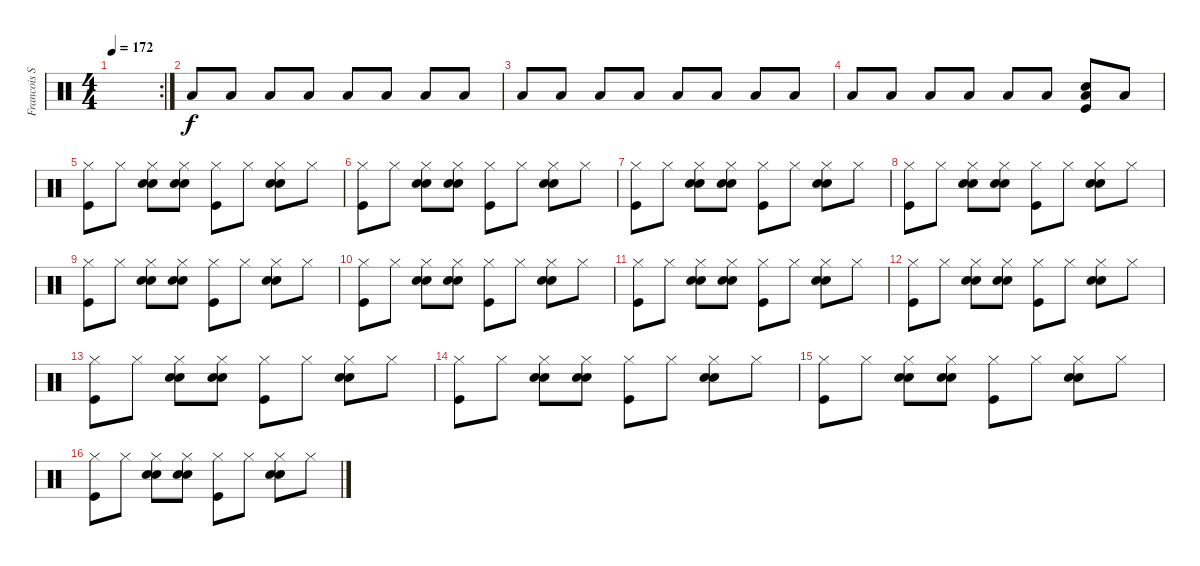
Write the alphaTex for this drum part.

\track ("Francois Soulier" "Francois S") {instrument percussion}
\staff {score}
\articulation defaults
\rc 2
\ts (4 4)
\tempo 172
\clef neutral
\ks c
|
"Low Floor Tom (hit)".8 "Low Floor Tom (hit)".8 "Low Floor Tom (hit)".8 "Low Floor Tom (hit)".8 "Low Floor Tom (hit)".8 "Low Floor Tom (hit)".8 "Low Floor Tom (hit)".8 "Low Floor Tom (hit)".8 |
"Low Floor Tom (hit)".8 "Low Floor Tom (hit)".8 "Low Floor Tom (hit)".8 "Low Floor Tom (hit)".8 "Low Floor Tom (hit)".8 "Low Floor Tom (hit)".8 "Low Floor Tom (hit)".8 "Low Floor Tom (hit)".8 |
"Low Floor Tom (hit)".8 "Low Floor Tom (hit)".8 "Low Floor Tom (hit)".8 "Low Floor Tom (hit)".8 "Low Floor Tom (hit)".8 "Low Floor Tom (hit)".8 ("Electric Snare (hit)" "Low Floor Tom (hit)" "Kick (hit)").8 "Low Floor Tom (hit)".8 |
("Hi-Hat (closed)" "Kick (hit)").8 "Hi-Hat (closed)".8 ("Electric Snare (hit)" "Hi-Hat (closed)" "Snare (hit) 2").8 ("Electric Snare (hit)" "Hi-Hat (closed)" "Snare (hit) 2").8 ("Hi-Hat (closed)" "Kick (hit)").8 "Hi-Hat (closed)".8 ("Electric Snare (hit)" "Hi-Hat (closed)" "Snare (hit) 2").8 "Hi-Hat (closed)".8 |
("Hi-Hat (closed)" "Kick (hit)").8 "Hi-Hat (closed)".8 ("Electric Snare (hit)" "Hi-Hat (closed)" "Snare (hit) 2").8 ("Electric Snare (hit)" "Hi-Hat (closed)" "Snare (hit) 2").8 ("Hi-Hat (closed)" "Kick (hit)").8 "Hi-Hat (closed)".8 ("Electric Snare (hit)" "Hi-Hat (closed)" "Snare (hit) 2").8 "Hi-Hat (closed)".8 |
("Hi-Hat (closed)" "Kick (hit)").8 "Hi-Hat (closed)".8 ("Electric Snare (hit)" "Hi-Hat (closed)" "Snare (hit) 2").8 ("Electric Snare (hit)" "Hi-Hat (closed)" "Snare (hit) 2").8 ("Hi-Hat (closed)" "Kick (hit)").8 "Hi-Hat (closed)".8 ("Electric Snare (hit)" "Hi-Hat (closed)" "Snare (hit) 2").8 "Hi-Hat (closed)".8 |
("Hi-Hat (closed)" "Kick (hit)").8 "Hi-Hat (closed)".8 ("Electric Snare (hit)" "Hi-Hat (closed)" "Snare (hit) 2").8 ("Electric Snare (hit)" "Hi-Hat (closed)" "Snare (hit) 2").8 ("Hi-Hat (closed)" "Kick (hit)").8 "Hi-Hat (closed)".8 ("Electric Snare (hit)" "Hi-Hat (closed)" "Snare (hit) 2").8 "Hi-Hat (closed)".8 |
("Hi-Hat (closed)" "Kick (hit)").8 "Hi-Hat (closed)".8 ("Electric Snare (hit)" "Hi-Hat (closed)" "Snare (hit) 2").8 ("Electric Snare (hit)" "Hi-Hat (closed)" "Snare (hit) 2").8 ("Hi-Hat (closed)" "Kick (hit)").8 "Hi-Hat (closed)".8 ("Electric Snare (hit)" "Hi-Hat (closed)" "Snare (hit) 2").8 "Hi-Hat (closed)".8 |
("Hi-Hat (closed)" "Kick (hit)").8 "Hi-Hat (closed)".8 ("Electric Snare (hit)" "Hi-Hat (closed)" "Snare (hit) 2").8 ("Electric Snare (hit)" "Hi-Hat (closed)" "Snare (hit) 2").8 ("Hi-Hat (closed)" "Kick (hit)").8 "Hi-Hat (closed)".8 ("Electric Snare (hit)" "Hi-Hat (closed)" "Snare (hit) 2").8 "Hi-Hat (closed)".8 |
("Hi-Hat (closed)" "Kick (hit)").8 "Hi-Hat (closed)".8 ("Electric Snare (hit)" "Hi-Hat (closed)" "Snare (hit) 2").8 ("Electric Snare (hit)" "Hi-Hat (closed)" "Snare (hit) 2").8 ("Hi-Hat (closed)" "Kick (hit)").8 "Hi-Hat (closed)".8 ("Electric Snare (hit)" "Hi-Hat (closed)" "Snare (hit) 2").8 "Hi-Hat (closed)".8 |
("Hi-Hat (closed)" "Kick (hit)").8 "Hi-Hat (closed)".8 ("Electric Snare (hit)" "Hi-Hat (closed)" "Snare (hit) 2").8 ("Electric Snare (hit)" "Hi-Hat (closed)" "Snare (hit) 2").8 ("Hi-Hat (closed)" "Kick (hit)").8 "Hi-Hat (closed)".8 ("Electric Snare (hit)" "Hi-Hat (closed)" "Snare (hit) 2").8 "Hi-Hat (closed)".8 |
("Hi-Hat (closed)" "Kick (hit)").8 "Hi-Hat (closed)".8 ("Electric Snare (hit)" "Hi-Hat (closed)" "Snare (hit) 2").8 ("Electric Snare (hit)" "Hi-Hat (closed)" "Snare (hit) 2").8 ("Hi-Hat (closed)" "Kick (hit)").8 "Hi-Hat (closed)".8 ("Electric Snare (hit)" "Hi-Hat (closed)" "Snare (hit) 2").8 "Hi-Hat (closed)".8 |
("Hi-Hat (closed)" "Kick (hit)").8 "Hi-Hat (closed)".8 ("Electric Snare (hit)" "Hi-Hat (closed)" "Snare (hit) 2").8 ("Electric Snare (hit)" "Hi-Hat (closed)" "Snare (hit) 2").8 ("Hi-Hat (closed)" "Kick (hit)").8 "Hi-Hat (closed)".8 ("Electric Snare (hit)" "Hi-Hat (closed)" "Snare (hit) 2").8 "Hi-Hat (closed)".8 |
("Hi-Hat (closed)" "Kick (hit)").8 "Hi-Hat (closed)".8 ("Electric Snare (hit)" "Hi-Hat (closed)" "Snare (hit) 2").8 ("Electric Snare (hit)" "Hi-Hat (closed)" "Snare (hit) 2").8 ("Hi-Hat (closed)" "Kick (hit)").8 "Hi-Hat (closed)".8 ("Electric Snare (hit)" "Hi-Hat (closed)" "Snare (hit) 2").8 "Hi-Hat (closed)".8 |
("Hi-Hat (closed)" "Kick (hit)").8 "Hi-Hat (closed)".8 ("Electric Snare (hit)" "Hi-Hat (closed)" "Snare (hit) 2").8 ("Electric Snare (hit)" "Hi-Hat (closed)" "Snare (hit) 2").8 ("Hi-Hat (closed)" "Kick (hit)").8 "Hi-Hat (closed)".8 ("Electric Snare (hit)" "Hi-Hat (closed)" "Snare (hit) 2").8 "Hi-Hat (closed)".8
